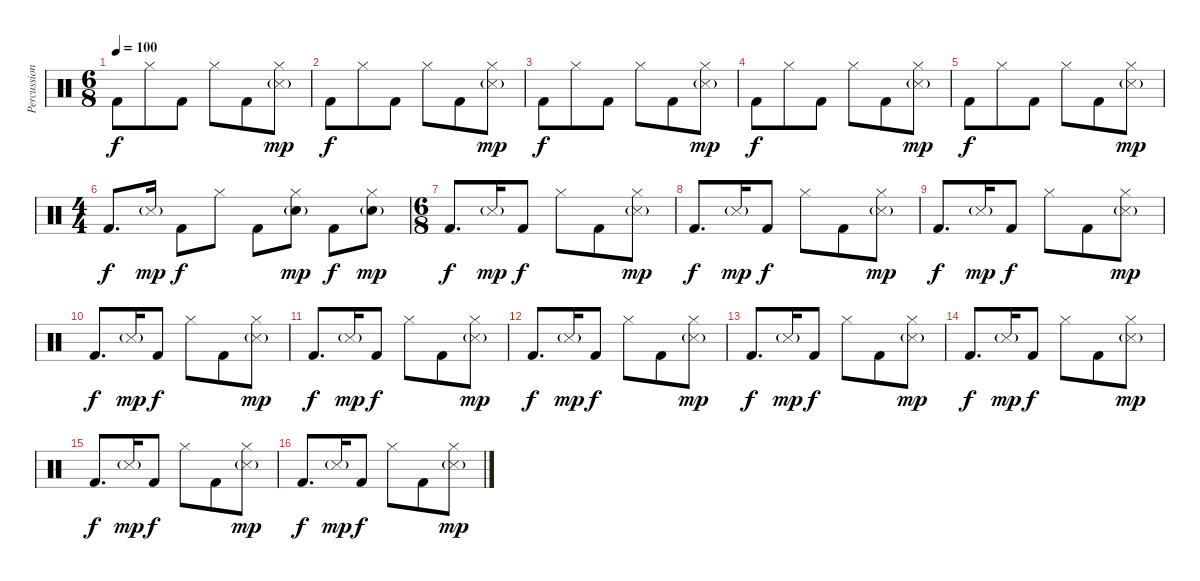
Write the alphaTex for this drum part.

\track ("Percussion" "Percussion") {instrument percussion}
\staff {score}
\articulation defaults
\ts (6 8)
\tempo 100
\clef neutral
\ks c "Kick (hit) 2".8{dy f} "Hi-Hat (closed)".8 "Kick (hit) 2".8 "Hi-Hat (closed)".8 "Kick (hit) 2".8
("Hi-Hat (closed)" "Snare (side stick) 3"{g}).8{dy mp} |
"Kick (hit) 2".8{dy f} "Hi-Hat (closed)".8 "Kick (hit) 2".8 "Hi-Hat (closed)".8 "Kick (hit) 2".8 ("Hi-Hat (closed)" "Snare (side stick) 3"{g}).8{dy mp} |
"Kick (hit) 2".8{dy f} "Hi-Hat (closed)".8 "Kick (hit) 2".8 "Hi-Hat (closed)".8 "Kick (hit) 2".8 ("Hi-Hat (closed)" "Snare (side stick) 3"{g}).8{dy mp} |
"Kick (hit) 2".8{dy f} "Hi-Hat (closed)".8 "Kick (hit) 2".8 "Hi-Hat (closed)".8 "Kick (hit) 2".8 ("Hi-Hat (closed)" "Snare (side stick) 3"{g}).8{dy mp} |
"Kick (hit) 2".8{dy f} "Hi-Hat (closed)".8 "Kick (hit) 2".8 "Hi-Hat (closed)".8 "Kick (hit) 2".8 ("Hi-Hat (closed)" "Snare (side stick) 3"{g}).8{dy mp} |
\ts (4 4)
"Kick (hit) 2".8{d dy f} "Snare (side stick) 3"{g}.16{dy mp} "Kick (hit) 2".8{dy f} "Hi-Hat (closed)".8 "Kick (hit) 2".8 ("Hi-Hat (closed)" "Snare (hit) 2"{g}).8{dy mp} "Kick (hit) 2".8{dy f} ("Hi-Hat (closed)" "Snare (hit) 2"{g}).8{dy mp} |
\ts (6 8)
"Kick (hit) 2".8{d dy f} "Snare (side stick) 3"{g}.16{dy mp} "Kick (hit) 2".8{dy f} "Hi-Hat (closed)".8 "Kick (hit) 2".8 ("Hi-Hat (closed)" "Snare (side stick) 3"{g}).8{dy mp} |
"Kick (hit) 2".8{d dy f} "Snare (side stick) 3"{g}.16{dy mp} "Kick (hit) 2".8{dy f} "Hi-Hat (closed)".8 "Kick (hit) 2".8 ("Hi-Hat (closed)" "Snare (side stick) 3"{g}).8{dy mp} |
"Kick (hit) 2".8{d dy f} "Snare (side stick) 3"{g}.16{dy mp} "Kick (hit) 2".8{dy f} "Hi-Hat (closed)".8 "Kick (hit) 2".8 ("Hi-Hat (closed)" "Snare (side stick) 3"{g}).8{dy mp} |
"Kick (hit) 2".8{d dy f} "Snare (side stick) 3"{g}.16{dy mp} "Kick (hit) 2".8{dy f} "Hi-Hat (closed)".8 "Kick (hit) 2".8 ("Hi-Hat (closed)" "Snare (side stick) 3"{g}).8{dy mp} |
"Kick (hit) 2".8{d dy f} "Snare (side stick) 3"{g}.16{dy mp} "Kick (hit) 2".8{dy f} "Hi-Hat (closed)".8 "Kick (hit) 2".8 ("Hi-Hat (closed)" "Snare (side stick) 3"{g}).8{dy mp} |
"Kick (hit) 2".8{d dy f} "Snare (side stick) 3"{g}.16{dy mp} "Kick (hit) 2".8{dy f} "Hi-Hat (closed)".8 "Kick (hit) 2".8 ("Hi-Hat (closed)" "Snare (side stick) 3"{g}).8{dy mp} |
"Kick (hit) 2".8{d dy f} "Snare (side stick) 3"{g}.16{dy mp} "Kick (hit) 2".8{dy f} "Hi-Hat (closed)".8 "Kick (hit) 2".8 ("Hi-Hat (closed)" "Snare (side stick) 3"{g}).8{dy mp} |
"Kick (hit) 2".8{d dy f} "Snare (side stick) 3"{g}.16{dy mp} "Kick (hit) 2".8{dy f} "Hi-Hat (closed)".8 "Kick (hit) 2".8 ("Hi-Hat (closed)" "Snare (side stick) 3"{g}).8{dy mp} |
"Kick (hit) 2".8{d dy f} "Snare (side stick) 3"{g}.16{dy mp} "Kick (hit) 2".8{dy f} "Hi-Hat (closed)".8 "Kick (hit) 2".8 ("Hi-Hat (closed)" "Snare (side stick) 3"{g}).8{dy mp} |
"Kick (hit) 2".8{d dy f} "Snare (side stick) 3"{g}.16{dy mp} "Kick (hit) 2".8{dy f} "Hi-Hat (closed)".8 "Kick (hit) 2".8 ("Hi-Hat (closed)" "Snare (side stick) 3"{g}).8{dy mp}
